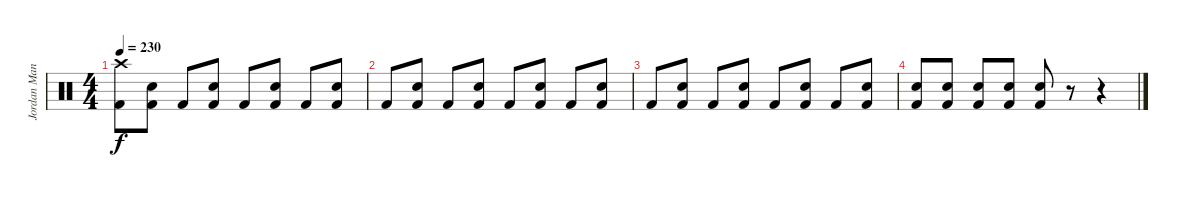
\track ("Jordan Mancino" "Jordan Man") {instrument percussion}
\staff {score}
\articulation defaults
\ts (4 4)
\tempo 230
\clef neutral
\ks c
("Crash high (hit)" "Kick (hit) 2").8{dy f} ("Snare (hit) 2" "Kick (hit) 2").8 "Kick (hit) 2".8 ("Snare (hit) 2" "Kick (hit) 2").8 "Kick (hit) 2".8 ("Snare (hit) 2" "Kick (hit) 2").8 "Kick (hit) 2".8 ("Snare (hit) 2" "Kick (hit) 2").8 |
"Kick (hit) 2".8 ("Snare (hit) 2" "Kick (hit) 2").8 "Kick (hit) 2".8 ("Snare (hit) 2" "Kick (hit) 2").8 "Kick (hit) 2".8 ("Snare (hit) 2" "Kick (hit) 2").8 "Kick (hit) 2".8 ("Snare (hit) 2" "Kick (hit) 2").8 |
"Kick (hit) 2".8 ("Snare (hit) 2" "Kick (hit) 2").8 "Kick (hit) 2".8 ("Snare (hit) 2" "Kick (hit) 2").8 "Kick (hit) 2".8 ("Snare (hit) 2" "Kick (hit) 2").8 "Kick (hit) 2".8 ("Snare (hit) 2" "Kick (hit) 2").8 |
("Snare (hit) 2" "Kick (hit) 2").8 ("Snare (hit) 2" "Kick (hit) 2").8 ("Snare (hit) 2" "Kick (hit) 2").8 ("Snare (hit) 2" "Kick (hit) 2").8 ("Snare (hit) 2" "Kick (hit) 2").8 r.8 r.4
